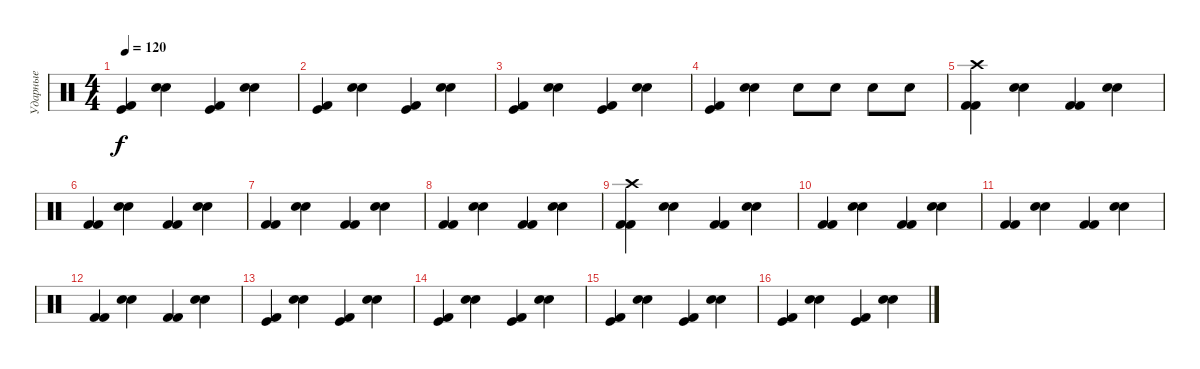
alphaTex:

\track ("Ударные" "Ударные") {instrument percussion}
\staff {score}
\articulation defaults
\ts (4 4)
\section ("" "")
\tempo 120
\clef neutral
\ks c
("Kick (hit) 2" "Kick (hit)").4{dy f} ("Electric Snare (hit)" "Electric Snare (hit)").4 ("Kick (hit) 2" "Kick (hit)").4 ("Electric Snare (hit)" "Electric Snare (hit)").4 |
("Kick (hit) 2" "Kick (hit)").4 ("Electric Snare (hit)" "Electric Snare (hit)").4 ("Kick (hit) 2" "Kick (hit)").4 ("Electric Snare (hit)" "Electric Snare (hit)").4 |
("Kick (hit) 2" "Kick (hit)").4 ("Electric Snare (hit)" "Electric Snare (hit)").4 ("Kick (hit) 2" "Kick (hit)").4 ("Electric Snare (hit)" "Electric Snare (hit)").4 |
("Kick (hit) 2" "Kick (hit)").4 ("Electric Snare (hit)" "Electric Snare (hit)").4 "Electric Snare (hit)".8 "Electric Snare (hit)".8 "Electric Snare (hit)".8 "Electric Snare (hit)".8 |
("Crash high (hit)" "Kick (hit) 2" "Kick (hit) 2").4 ("Electric Snare (hit)" "Electric Snare (hit)").4 ("Kick (hit) 2" "Kick (hit) 2").4 ("Electric Snare (hit)" "Electric Snare (hit)").4 |
("Kick (hit) 2" "Kick (hit) 2").4 ("Electric Snare (hit)" "Electric Snare (hit)").4 ("Kick (hit) 2" "Kick (hit) 2").4 ("Electric Snare (hit)" "Electric Snare (hit)").4 |
("Kick (hit) 2" "Kick (hit) 2").4 ("Electric Snare (hit)" "Electric Snare (hit)").4 ("Kick (hit) 2" "Kick (hit) 2").4 ("Electric Snare (hit)" "Electric Snare (hit)").4 |
("Kick (hit) 2" "Kick (hit) 2").4 ("Electric Snare (hit)" "Electric Snare (hit)").4 ("Kick (hit) 2" "Kick (hit) 2").4 ("Electric Snare (hit)" "Electric Snare (hit)").4 |
("Crash high (hit)" "Kick (hit) 2" "Kick (hit) 2").4 ("Electric Snare (hit)" "Electric Snare (hit)").4 ("Kick (hit) 2" "Kick (hit) 2").4 ("Electric Snare (hit)" "Electric Snare (hit)").4 |
("Kick (hit) 2" "Kick (hit) 2").4 ("Electric Snare (hit)" "Electric Snare (hit)").4 ("Kick (hit) 2" "Kick (hit) 2").4 ("Electric Snare (hit)" "Electric Snare (hit)").4 |
("Kick (hit) 2" "Kick (hit) 2").4 ("Electric Snare (hit)" "Electric Snare (hit)").4 ("Kick (hit) 2" "Kick (hit) 2").4 ("Electric Snare (hit)" "Electric Snare (hit)").4 |
("Kick (hit) 2" "Kick (hit) 2").4 ("Electric Snare (hit)" "Electric Snare (hit)").4 ("Kick (hit) 2" "Kick (hit) 2").4 ("Electric Snare (hit)" "Electric Snare (hit)").4 |
("Kick (hit) 2" "Kick (hit)").4 ("Electric Snare (hit)" "Electric Snare (hit)").4 ("Kick (hit) 2" "Kick (hit)").4 ("Electric Snare (hit)" "Electric Snare (hit)").4 |
("Kick (hit) 2" "Kick (hit)").4 ("Electric Snare (hit)" "Electric Snare (hit)").4 ("Kick (hit) 2" "Kick (hit)").4 ("Electric Snare (hit)" "Electric Snare (hit)").4 |
("Kick (hit) 2" "Kick (hit)").4 ("Electric Snare (hit)" "Electric Snare (hit)").4 ("Kick (hit) 2" "Kick (hit)").4 ("Electric Snare (hit)" "Electric Snare (hit)").4 |
("Kick (hit) 2" "Kick (hit)").4 ("Electric Snare (hit)" "Electric Snare (hit)").4 ("Kick (hit) 2" "Kick (hit)").4 ("Electric Snare (hit)" "Electric Snare (hit)").4
